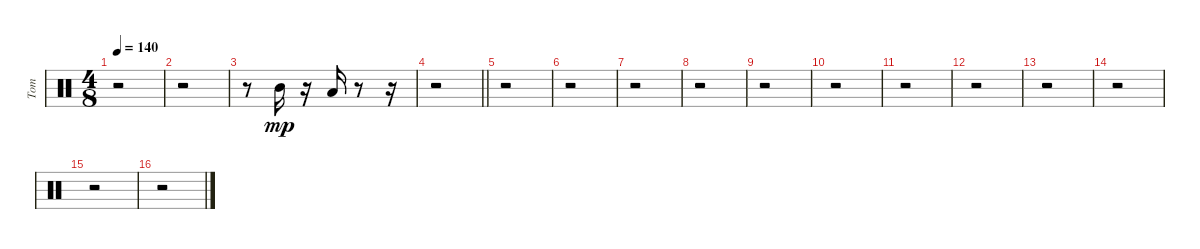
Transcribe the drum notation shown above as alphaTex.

\track ("Tom" "Tom") {instrument percussion}
\staff {score}
\articulation defaults
\ts (4 8)
\tempo 140
\clef neutral
\ks c
r.2{dy mp} |
r.2 |
r.8 "Mid Tom (hit)".16 r.16 "Low Tom (hit)".16 r.8 r.16 |
\barLineRight lightlight
r.2 |
r.2 |
r.2 |
r.2 |
r.2 |
r.2 |
r.2 |
r.2 |
r.2 |
r.2 |
r.2 |
r.2 |
r.2
